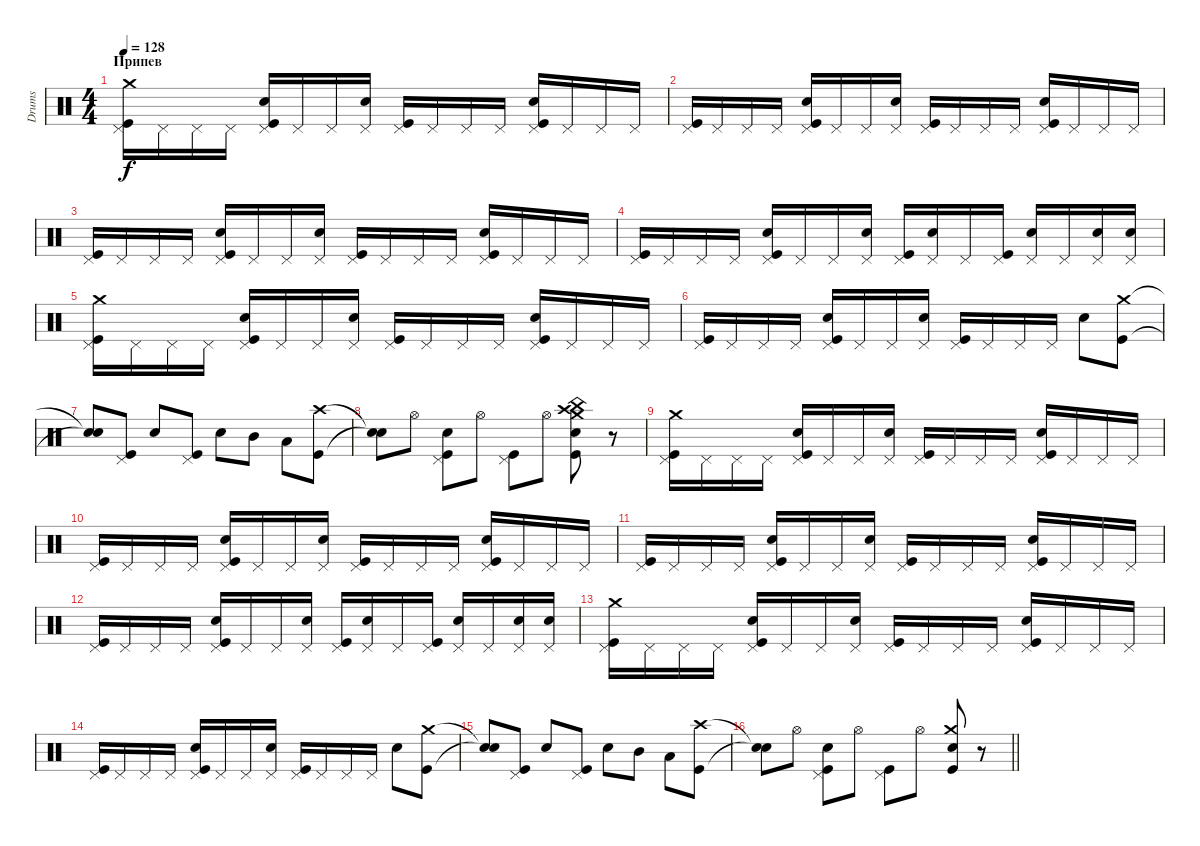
\track ("Drums" "Drums") {instrument percussion}
\staff {score}
\articulation defaults
\ts (4 4)
\section ("" "Припев")
\tempo 128
\clef neutral
\ks c
("Kick (hit)" "Pedal Hi-Hat (hit)" "Crash medium (hit)").16{dy f} "Pedal Hi-Hat (hit)".16 "Pedal Hi-Hat (hit)".16 "Pedal Hi-Hat (hit)".16 ("Kick (hit)" "Pedal Hi-Hat (hit)" "Snare (hit) 2").16 "Pedal Hi-Hat (hit)".16 "Pedal Hi-Hat (hit)".16 ("Pedal Hi-Hat (hit)" "Snare (hit) 2").16 ("Kick (hit)" "Pedal Hi-Hat (hit)").16 "Pedal Hi-Hat (hit)".16 "Pedal Hi-Hat (hit)".16 "Pedal Hi-Hat (hit)".16 ("Kick (hit)" "Pedal Hi-Hat (hit)" "Snare (hit) 2").16 "Pedal Hi-Hat (hit)".16 "Pedal Hi-Hat (hit)".16 "Pedal Hi-Hat (hit)".16 |
("Kick (hit)" "Pedal Hi-Hat (hit)").16 "Pedal Hi-Hat (hit)".16 "Pedal Hi-Hat (hit)".16 "Pedal Hi-Hat (hit)".16 ("Kick (hit)" "Pedal Hi-Hat (hit)" "Snare (hit) 2").16 "Pedal Hi-Hat (hit)".16 "Pedal Hi-Hat (hit)".16 ("Pedal Hi-Hat (hit)" "Snare (hit) 2").16 ("Kick (hit)" "Pedal Hi-Hat (hit)").16 "Pedal Hi-Hat (hit)".16 "Pedal Hi-Hat (hit)".16 "Pedal Hi-Hat (hit)".16 ("Kick (hit)" "Pedal Hi-Hat (hit)" "Snare (hit) 2").16 "Pedal Hi-Hat (hit)".16 "Pedal Hi-Hat (hit)".16 "Pedal Hi-Hat (hit)".16 |
("Kick (hit)" "Pedal Hi-Hat (hit)").16 "Pedal Hi-Hat (hit)".16 "Pedal Hi-Hat (hit)".16 "Pedal Hi-Hat (hit)".16 ("Kick (hit)" "Pedal Hi-Hat (hit)" "Snare (hit) 2").16 "Pedal Hi-Hat (hit)".16 "Pedal Hi-Hat (hit)".16 ("Pedal Hi-Hat (hit)" "Snare (hit) 2").16 ("Kick (hit)" "Pedal Hi-Hat (hit)").16 "Pedal Hi-Hat (hit)".16 "Pedal Hi-Hat (hit)".16 "Pedal Hi-Hat (hit)".16 ("Kick (hit)" "Pedal Hi-Hat (hit)" "Snare (hit) 2").16 "Pedal Hi-Hat (hit)".16 "Pedal Hi-Hat (hit)".16 "Pedal Hi-Hat (hit)".16 |
("Kick (hit)" "Pedal Hi-Hat (hit)").16 "Pedal Hi-Hat (hit)".16 "Pedal Hi-Hat (hit)".16 "Pedal Hi-Hat (hit)".16 ("Kick (hit)" "Pedal Hi-Hat (hit)" "Snare (hit) 2").16 "Pedal Hi-Hat (hit)".16 "Pedal Hi-Hat (hit)".16 ("Pedal Hi-Hat (hit)" "Snare (hit) 2").16 ("Kick (hit)" "Pedal Hi-Hat (hit)").16 ("Pedal Hi-Hat (hit)" "Snare (hit) 2").16 "Pedal Hi-Hat (hit)".16 ("Kick (hit)" "Pedal Hi-Hat (hit)").16 ("Pedal Hi-Hat (hit)" "Snare (hit) 2").16 "Pedal Hi-Hat (hit)".16 ("Pedal Hi-Hat (hit)" "Snare (hit) 2").16 ("Pedal Hi-Hat (hit)" "Snare (hit) 2").16 |
("Kick (hit)" "Pedal Hi-Hat (hit)" "Crash medium (hit)").16 "Pedal Hi-Hat (hit)".16 "Pedal Hi-Hat (hit)".16 "Pedal Hi-Hat (hit)".16 ("Kick (hit)" "Pedal Hi-Hat (hit)" "Snare (hit) 2").16 "Pedal Hi-Hat (hit)".16 "Pedal Hi-Hat (hit)".16 ("Pedal Hi-Hat (hit)" "Snare (hit) 2").16 ("Kick (hit)" "Pedal Hi-Hat (hit)").16 "Pedal Hi-Hat (hit)".16 "Pedal Hi-Hat (hit)".16 "Pedal Hi-Hat (hit)".16 ("Kick (hit)" "Pedal Hi-Hat (hit)" "Snare (hit) 2").16 "Pedal Hi-Hat (hit)".16 "Pedal Hi-Hat (hit)".16 "Pedal Hi-Hat (hit)".16 |
("Kick (hit)" "Pedal Hi-Hat (hit)").16 "Pedal Hi-Hat (hit)".16 "Pedal Hi-Hat (hit)".16 "Pedal Hi-Hat (hit)".16 ("Kick (hit)" "Pedal Hi-Hat (hit)" "Snare (hit) 2").16 "Pedal Hi-Hat (hit)".16 "Pedal Hi-Hat (hit)".16 ("Pedal Hi-Hat (hit)" "Snare (hit) 2").16 ("Kick (hit)" "Pedal Hi-Hat (hit)").16 "Pedal Hi-Hat (hit)".16 "Pedal Hi-Hat (hit)".16 "Pedal Hi-Hat (hit)".16 "Snare (hit) 2".8 ("Kick (hit)" "Crash medium (hit)").8 |
("Snare (hit)"{t} "Snare (hit)"{t}).8 ("Kick (hit)" "Pedal Hi-Hat (hit)").8 "Snare (hit) 2".8 ("Kick (hit)" "Pedal Hi-Hat (hit)").8 "Snare (hit) 2".8 "Mid Tom (hit)".8 "Low Tom (hit)".8 ("Kick (hit)" "Crash high (hit)").8 |
("Snare (hit)"{t} "Snare (hit)"{t}).8 "Hi-Hat (open)".8 ("Kick (hit)" "Pedal Hi-Hat (hit)" "Snare (hit) 2").8 "Hi-Hat (open)".8 ("Kick (hit)" "Pedal Hi-Hat (hit)").8 "Hi-Hat (open)".8 ("Kick (hit)" "Crash high (hit)" "Snare (hit) 2" "Crash medium (hit)" "China (hit)").8 r.8 |
("Kick (hit)" "Pedal Hi-Hat (hit)" "Crash medium (hit)").16 "Pedal Hi-Hat (hit)".16 "Pedal Hi-Hat (hit)".16 "Pedal Hi-Hat (hit)".16 ("Kick (hit)" "Pedal Hi-Hat (hit)" "Snare (hit) 2").16 "Pedal Hi-Hat (hit)".16 "Pedal Hi-Hat (hit)".16 ("Pedal Hi-Hat (hit)" "Snare (hit) 2").16 ("Kick (hit)" "Pedal Hi-Hat (hit)").16 "Pedal Hi-Hat (hit)".16 "Pedal Hi-Hat (hit)".16 "Pedal Hi-Hat (hit)".16 ("Kick (hit)" "Pedal Hi-Hat (hit)" "Snare (hit) 2").16 "Pedal Hi-Hat (hit)".16 "Pedal Hi-Hat (hit)".16 "Pedal Hi-Hat (hit)".16 |
("Kick (hit)" "Pedal Hi-Hat (hit)").16 "Pedal Hi-Hat (hit)".16 "Pedal Hi-Hat (hit)".16 "Pedal Hi-Hat (hit)".16 ("Kick (hit)" "Pedal Hi-Hat (hit)" "Snare (hit) 2").16 "Pedal Hi-Hat (hit)".16 "Pedal Hi-Hat (hit)".16 ("Pedal Hi-Hat (hit)" "Snare (hit) 2").16 ("Kick (hit)" "Pedal Hi-Hat (hit)").16 "Pedal Hi-Hat (hit)".16 "Pedal Hi-Hat (hit)".16 "Pedal Hi-Hat (hit)".16 ("Kick (hit)" "Pedal Hi-Hat (hit)" "Snare (hit) 2").16 "Pedal Hi-Hat (hit)".16 "Pedal Hi-Hat (hit)".16 "Pedal Hi-Hat (hit)".16 |
("Kick (hit)" "Pedal Hi-Hat (hit)").16 "Pedal Hi-Hat (hit)".16 "Pedal Hi-Hat (hit)".16 "Pedal Hi-Hat (hit)".16 ("Kick (hit)" "Pedal Hi-Hat (hit)" "Snare (hit) 2").16 "Pedal Hi-Hat (hit)".16 "Pedal Hi-Hat (hit)".16 ("Pedal Hi-Hat (hit)" "Snare (hit) 2").16 ("Kick (hit)" "Pedal Hi-Hat (hit)").16 "Pedal Hi-Hat (hit)".16 "Pedal Hi-Hat (hit)".16 "Pedal Hi-Hat (hit)".16 ("Kick (hit)" "Pedal Hi-Hat (hit)" "Snare (hit) 2").16 "Pedal Hi-Hat (hit)".16 "Pedal Hi-Hat (hit)".16 "Pedal Hi-Hat (hit)".16 |
("Kick (hit)" "Pedal Hi-Hat (hit)").16 "Pedal Hi-Hat (hit)".16 "Pedal Hi-Hat (hit)".16 "Pedal Hi-Hat (hit)".16 ("Kick (hit)" "Pedal Hi-Hat (hit)" "Snare (hit) 2").16 "Pedal Hi-Hat (hit)".16 "Pedal Hi-Hat (hit)".16 ("Pedal Hi-Hat (hit)" "Snare (hit) 2").16 ("Kick (hit)" "Pedal Hi-Hat (hit)").16 ("Pedal Hi-Hat (hit)" "Snare (hit) 2").16 "Pedal Hi-Hat (hit)".16 ("Kick (hit)" "Pedal Hi-Hat (hit)").16 ("Pedal Hi-Hat (hit)" "Snare (hit) 2").16 "Pedal Hi-Hat (hit)".16 ("Pedal Hi-Hat (hit)" "Snare (hit) 2").16 ("Pedal Hi-Hat (hit)" "Snare (hit) 2").16 |
("Kick (hit)" "Pedal Hi-Hat (hit)" "Crash medium (hit)").16 "Pedal Hi-Hat (hit)".16 "Pedal Hi-Hat (hit)".16 "Pedal Hi-Hat (hit)".16 ("Kick (hit)" "Pedal Hi-Hat (hit)" "Snare (hit) 2").16 "Pedal Hi-Hat (hit)".16 "Pedal Hi-Hat (hit)".16 ("Pedal Hi-Hat (hit)" "Snare (hit) 2").16 ("Kick (hit)" "Pedal Hi-Hat (hit)").16 "Pedal Hi-Hat (hit)".16 "Pedal Hi-Hat (hit)".16 "Pedal Hi-Hat (hit)".16 ("Kick (hit)" "Pedal Hi-Hat (hit)" "Snare (hit) 2").16 "Pedal Hi-Hat (hit)".16 "Pedal Hi-Hat (hit)".16 "Pedal Hi-Hat (hit)".16 |
("Kick (hit)" "Pedal Hi-Hat (hit)").16 "Pedal Hi-Hat (hit)".16 "Pedal Hi-Hat (hit)".16 "Pedal Hi-Hat (hit)".16 ("Kick (hit)" "Pedal Hi-Hat (hit)" "Snare (hit) 2").16 "Pedal Hi-Hat (hit)".16 "Pedal Hi-Hat (hit)".16 ("Pedal Hi-Hat (hit)" "Snare (hit) 2").16 ("Kick (hit)" "Pedal Hi-Hat (hit)").16 "Pedal Hi-Hat (hit)".16 "Pedal Hi-Hat (hit)".16 "Pedal Hi-Hat (hit)".16 "Snare (hit) 2".8 ("Kick (hit)" "Crash medium (hit)").8 |
("Snare (hit)"{t} "Snare (hit)"{t}).8 ("Kick (hit)" "Pedal Hi-Hat (hit)").8 "Snare (hit) 2".8 ("Kick (hit)" "Pedal Hi-Hat (hit)").8 "Snare (hit) 2".8 "Mid Tom (hit)".8 "Low Tom (hit)".8 ("Kick (hit)" "Crash high (hit)").8 |
\barLineRight lightlight
("Snare (hit)"{t} "Snare (hit)"{t}).8 "Hi-Hat (open)".8 ("Kick (hit)" "Pedal Hi-Hat (hit)" "Snare (hit) 2").8 "Hi-Hat (open)".8 ("Kick (hit)" "Pedal Hi-Hat (hit)").8 "Hi-Hat (open)".8 ("Kick (hit)" "Snare (hit) 2" "Crash medium (hit)").8 r.8
